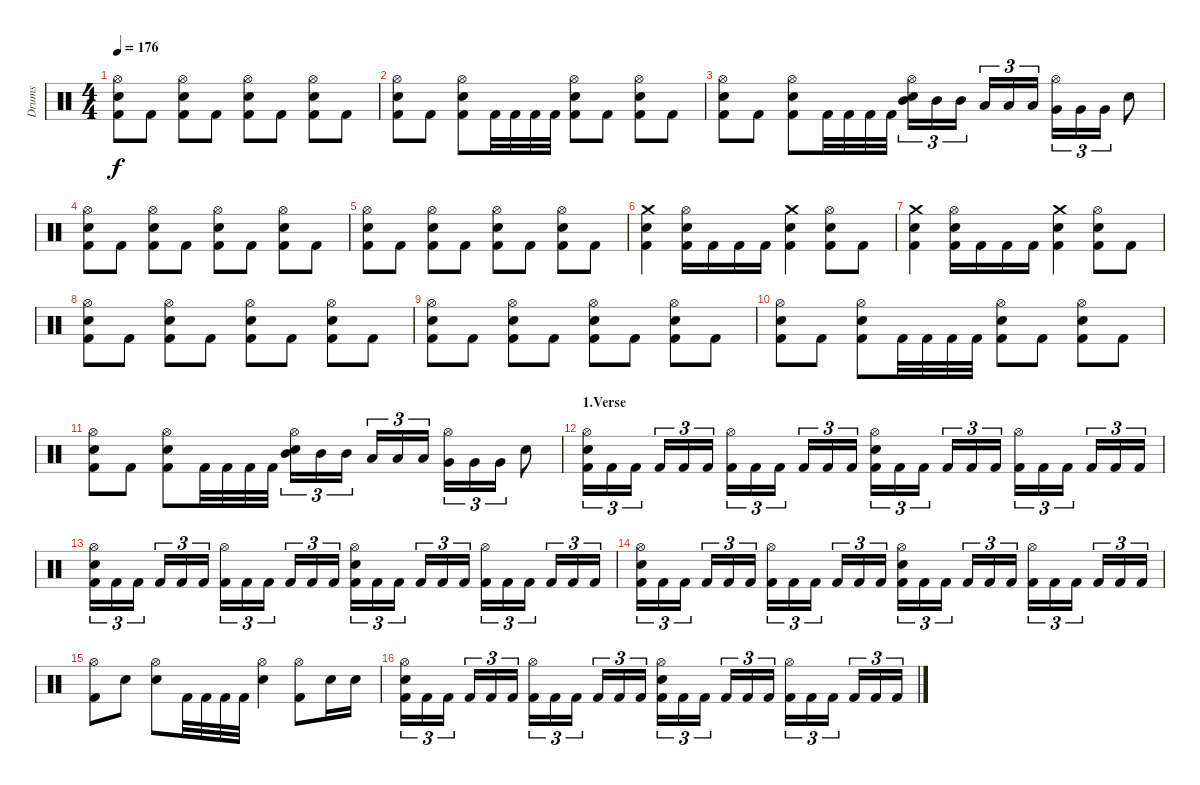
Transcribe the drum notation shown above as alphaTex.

\track ("Drums" "Drums") {instrument percussion}
\staff {score}
\articulation defaults
\ts (4 4)
\tempo 176
\clef neutral
\ks c
("Hi-Hat (open)" "Snare (hit) 2" "Kick (hit) 2").8{dy f} "Kick (hit) 2".8 ("Hi-Hat (open)" "Snare (hit) 2" "Kick (hit) 2").8 "Kick (hit) 2".8 ("Hi-Hat (open)" "Snare (hit) 2" "Kick (hit) 2").8 "Kick (hit) 2".8 ("Hi-Hat (open)" "Snare (hit) 2" "Kick (hit) 2").8 "Kick (hit) 2".8 |
("Hi-Hat (open)" "Snare (hit) 2" "Kick (hit) 2").8 "Kick (hit) 2".8 ("Hi-Hat (open)" "Snare (hit) 2" "Kick (hit) 2").8 "Kick (hit) 2".32 "Kick (hit) 2".32 "Kick (hit) 2".32 "Kick (hit) 2".32 ("Hi-Hat (open)" "Snare (hit) 2" "Kick (hit) 2").8 "Kick (hit) 2".8 ("Hi-Hat (open)" "Snare (hit) 2" "Kick (hit) 2").8 "Kick (hit) 2".8 |
("Hi-Hat (open)" "Snare (hit) 2" "Kick (hit) 2").8 "Kick (hit) 2".8 ("Hi-Hat (open)" "Snare (hit) 2" "Kick (hit) 2").8 "Kick (hit) 2".32 "Kick (hit) 2".32 "Kick (hit) 2".32 "Kick (hit) 2".32 ("Hi-Hat (open)" "Mid Tom (hit)" "Snare (hit) 2").16{tu (3 2)} "Mid Tom (hit)".16{tu (3 2)} "Mid Tom (hit)".16{tu (3 2)} "Low Tom (hit)".16{tu (3 2)} "Low Tom (hit)".16{tu (3 2)} "Low Tom (hit)".16{tu (3 2)} ("Hi-Hat (open)" "Very Low Tom (hit)").16{tu (3 2)} "Very Low Tom (hit)".16{tu (3 2)} "Very Low Tom (hit)".16{tu (3 2)} "Snare (hit) 2".8 |
("Hi-Hat (open)" "Snare (hit) 2" "Kick (hit) 2").8 "Kick (hit) 2".8 ("Hi-Hat (open)" "Snare (hit) 2" "Kick (hit) 2").8 "Kick (hit) 2".8 ("Hi-Hat (open)" "Snare (hit) 2" "Kick (hit) 2").8 "Kick (hit) 2".8 ("Hi-Hat (open)" "Snare (hit) 2" "Kick (hit) 2").8 "Kick (hit) 2".8 |
("Hi-Hat (open)" "Snare (hit) 2" "Kick (hit) 2").8 "Kick (hit) 2".8 ("Hi-Hat (open)" "Snare (hit) 2" "Kick (hit) 2").8 "Kick (hit) 2".8 ("Hi-Hat (open)" "Snare (hit) 2" "Kick (hit) 2").8 "Kick (hit) 2".8 ("Hi-Hat (open)" "Snare (hit) 2" "Kick (hit) 2").8 "Kick (hit) 2".8 |
("Crash medium (hit)" "Snare (hit) 2" "Kick (hit) 2").4 ("Hi-Hat (open)" "Snare (hit) 2" "Kick (hit) 2").16 "Kick (hit) 2".16 "Kick (hit) 2".16 "Kick (hit) 2".16 ("Crash medium (hit)" "Snare (hit) 2" "Kick (hit) 2").4 ("Hi-Hat (open)" "Snare (hit) 2" "Kick (hit) 2").8 "Kick (hit) 2".8 |
("Crash medium (hit)" "Snare (hit) 2" "Kick (hit) 2").4 ("Hi-Hat (open)" "Snare (hit) 2" "Kick (hit) 2").16 "Kick (hit) 2".16 "Kick (hit) 2".16 "Kick (hit) 2".16 ("Crash medium (hit)" "Snare (hit) 2" "Kick (hit) 2").4 ("Hi-Hat (open)" "Snare (hit) 2" "Kick (hit) 2").8 "Kick (hit) 2".8 |
("Hi-Hat (open)" "Snare (hit) 2" "Kick (hit) 2").8 "Kick (hit) 2".8 ("Hi-Hat (open)" "Snare (hit) 2" "Kick (hit) 2").8 "Kick (hit) 2".8 ("Hi-Hat (open)" "Snare (hit) 2" "Kick (hit) 2").8 "Kick (hit) 2".8 ("Hi-Hat (open)" "Snare (hit) 2" "Kick (hit) 2").8 "Kick (hit) 2".8 |
("Hi-Hat (open)" "Snare (hit) 2" "Kick (hit) 2").8 "Kick (hit) 2".8 ("Hi-Hat (open)" "Snare (hit) 2" "Kick (hit) 2").8 "Kick (hit) 2".8 ("Hi-Hat (open)" "Snare (hit) 2" "Kick (hit) 2").8 "Kick (hit) 2".8 ("Hi-Hat (open)" "Snare (hit) 2" "Kick (hit) 2").8 "Kick (hit) 2".8 |
("Hi-Hat (open)" "Snare (hit) 2" "Kick (hit) 2").8 "Kick (hit) 2".8 ("Hi-Hat (open)" "Snare (hit) 2" "Kick (hit) 2").8 "Kick (hit) 2".32 "Kick (hit) 2".32 "Kick (hit) 2".32 "Kick (hit) 2".32 ("Hi-Hat (open)" "Snare (hit) 2" "Kick (hit) 2").8 "Kick (hit) 2".8 ("Hi-Hat (open)" "Snare (hit) 2" "Kick (hit) 2").8 "Kick (hit) 2".8 |
("Hi-Hat (open)" "Snare (hit) 2" "Kick (hit) 2").8 "Kick (hit) 2".8 ("Hi-Hat (open)" "Snare (hit) 2" "Kick (hit) 2").8 "Kick (hit) 2".32 "Kick (hit) 2".32 "Kick (hit) 2".32 "Kick (hit) 2".32 ("Hi-Hat (open)" "Mid Tom (hit)" "Snare (hit) 2").16{tu (3 2)} "Mid Tom (hit)".16{tu (3 2)} "Mid Tom (hit)".16{tu (3 2)} "Low Tom (hit)".16{tu (3 2)} "Low Tom (hit)".16{tu (3 2)} "Low Tom (hit)".16{tu (3 2)} ("Hi-Hat (open)" "Very Low Tom (hit)").16{tu (3 2)} "Very Low Tom (hit)".16{tu (3 2)} "Very Low Tom (hit)".16{tu (3 2)} "Snare (hit) 2".8 |
\section ("" "1.Verse")
("Hi-Hat (open)" "Snare (hit) 2" "Kick (hit) 2").16{tu (3 2)} "Kick (hit) 2".16{tu (3 2)} "Kick (hit) 2".16{tu (3 2)} "Kick (hit) 2".16{tu (3 2)} "Kick (hit) 2".16{tu (3 2)} "Kick (hit) 2".16{tu (3 2)} ("Hi-Hat (open)" "Kick (hit) 2").16{tu (3 2)} "Kick (hit) 2".16{tu (3 2)} "Kick (hit) 2".16{tu (3 2)} "Kick (hit) 2".16{tu (3 2)} "Kick (hit) 2".16{tu (3 2)} "Kick (hit) 2".16{tu (3 2)} ("Hi-Hat (open)" "Snare (hit) 2" "Kick (hit) 2").16{tu (3 2)} "Kick (hit) 2".16{tu (3 2)} "Kick (hit) 2".16{tu (3 2)} "Kick (hit) 2".16{tu (3 2)} "Kick (hit) 2".16{tu (3 2)} "Kick (hit) 2".16{tu (3 2)} ("Hi-Hat (open)" "Kick (hit) 2").16{tu (3 2)} "Kick (hit) 2".16{tu (3 2)} "Kick (hit) 2".16{tu (3 2)} "Kick (hit) 2".16{tu (3 2)} "Kick (hit) 2".16{tu (3 2)} "Kick (hit) 2".16{tu (3 2)} |
("Hi-Hat (open)" "Snare (hit) 2" "Kick (hit) 2").16{tu (3 2)} "Kick (hit) 2".16{tu (3 2)} "Kick (hit) 2".16{tu (3 2)} "Kick (hit) 2".16{tu (3 2)} "Kick (hit) 2".16{tu (3 2)} "Kick (hit) 2".16{tu (3 2)} ("Hi-Hat (open)" "Kick (hit) 2").16{tu (3 2)} "Kick (hit) 2".16{tu (3 2)} "Kick (hit) 2".16{tu (3 2)} "Kick (hit) 2".16{tu (3 2)} "Kick (hit) 2".16{tu (3 2)} "Kick (hit) 2".16{tu (3 2)} ("Hi-Hat (open)" "Snare (hit) 2" "Kick (hit) 2").16{tu (3 2)} "Kick (hit) 2".16{tu (3 2)} "Kick (hit) 2".16{tu (3 2)} "Kick (hit) 2".16{tu (3 2)} "Kick (hit) 2".16{tu (3 2)} "Kick (hit) 2".16{tu (3 2)} ("Hi-Hat (open)" "Kick (hit) 2").16{tu (3 2)} "Kick (hit) 2".16{tu (3 2)} "Kick (hit) 2".16{tu (3 2)} "Kick (hit) 2".16{tu (3 2)} "Kick (hit) 2".16{tu (3 2)} "Kick (hit) 2".16{tu (3 2)} |
("Hi-Hat (open)" "Snare (hit) 2" "Kick (hit) 2").16{tu (3 2)} "Kick (hit) 2".16{tu (3 2)} "Kick (hit) 2".16{tu (3 2)} "Kick (hit) 2".16{tu (3 2)} "Kick (hit) 2".16{tu (3 2)} "Kick (hit) 2".16{tu (3 2)} ("Hi-Hat (open)" "Kick (hit) 2").16{tu (3 2)} "Kick (hit) 2".16{tu (3 2)} "Kick (hit) 2".16{tu (3 2)} "Kick (hit) 2".16{tu (3 2)} "Kick (hit) 2".16{tu (3 2)} "Kick (hit) 2".16{tu (3 2)} ("Hi-Hat (open)" "Snare (hit) 2" "Kick (hit) 2").16{tu (3 2)} "Kick (hit) 2".16{tu (3 2)} "Kick (hit) 2".16{tu (3 2)} "Kick (hit) 2".16{tu (3 2)} "Kick (hit) 2".16{tu (3 2)} "Kick (hit) 2".16{tu (3 2)} ("Hi-Hat (open)" "Kick (hit) 2").16{tu (3 2)} "Kick (hit) 2".16{tu (3 2)} "Kick (hit) 2".16{tu (3 2)} "Kick (hit) 2".16{tu (3 2)} "Kick (hit) 2".16{tu (3 2)} "Kick (hit) 2".16{tu (3 2)} |
("Hi-Hat (open)" "Kick (hit) 2").8 "Snare (hit) 2".8 ("Hi-Hat (open)" "Snare (hit) 2").8 "Kick (hit) 2".32 "Kick (hit) 2".32 "Kick (hit) 2".32 "Kick (hit) 2".32 ("Hi-Hat (open)" "Snare (hit) 2").4 ("Hi-Hat (open)" "Kick (hit) 2").8 "Snare (hit) 2".16 "Snare (hit) 2".16 |
("Hi-Hat (open)" "Snare (hit) 2" "Kick (hit) 2").16{tu (3 2)} "Kick (hit) 2".16{tu (3 2)} "Kick (hit) 2".16{tu (3 2)} "Kick (hit) 2".16{tu (3 2)} "Kick (hit) 2".16{tu (3 2)} "Kick (hit) 2".16{tu (3 2)} ("Hi-Hat (open)" "Kick (hit) 2").16{tu (3 2)} "Kick (hit) 2".16{tu (3 2)} "Kick (hit) 2".16{tu (3 2)} "Kick (hit) 2".16{tu (3 2)} "Kick (hit) 2".16{tu (3 2)} "Kick (hit) 2".16{tu (3 2)} ("Hi-Hat (open)" "Snare (hit) 2" "Kick (hit) 2").16{tu (3 2)} "Kick (hit) 2".16{tu (3 2)} "Kick (hit) 2".16{tu (3 2)} "Kick (hit) 2".16{tu (3 2)} "Kick (hit) 2".16{tu (3 2)} "Kick (hit) 2".16{tu (3 2)} ("Hi-Hat (open)" "Kick (hit) 2").16{tu (3 2)} "Kick (hit) 2".16{tu (3 2)} "Kick (hit) 2".16{tu (3 2)} "Kick (hit) 2".16{tu (3 2)} "Kick (hit) 2".16{tu (3 2)} "Kick (hit) 2".16{tu (3 2)}
